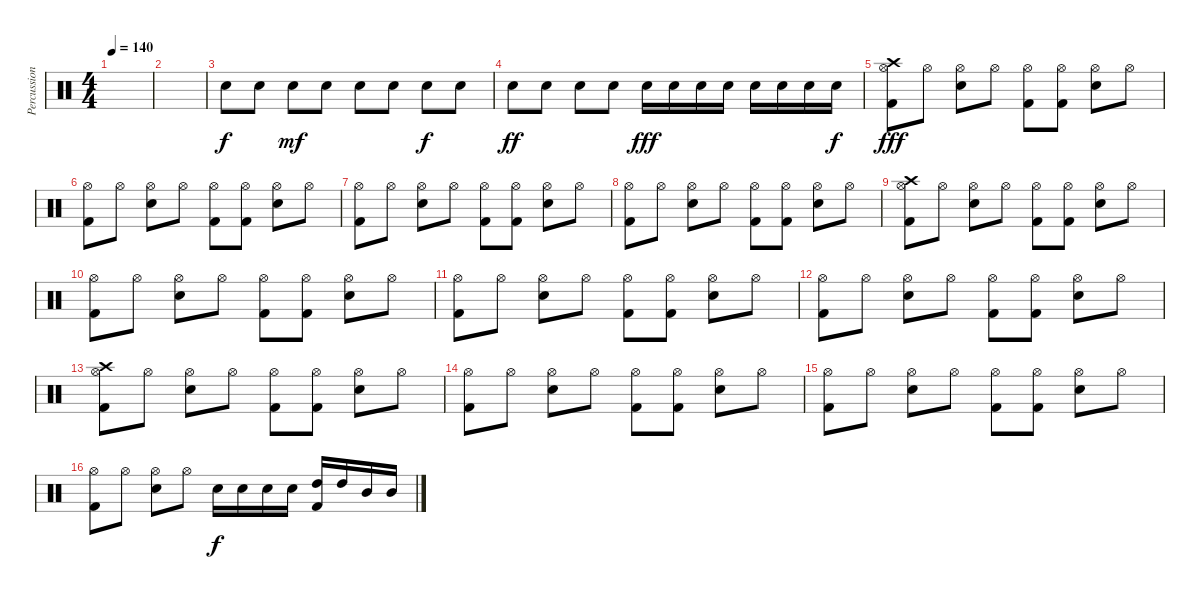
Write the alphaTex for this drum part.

\track ("Percussion" "Percussion") {instrument percussion}
\staff {score}
\articulation defaults
\ts (4 4)
\tempo 140
\clef neutral
\ks c
|
|
"Snare (hit) 2".8 "Snare (hit) 2".8 "Snare (hit) 2".8{dy mf} "Snare (hit) 2".8 "Snare (hit) 2".8 "Snare (hit) 2".8 "Snare (hit) 2".8{dy f} "Snare (hit) 2".8 |
"Snare (hit) 2".8{dy ff} "Snare (hit) 2".8 "Snare (hit) 2".8 "Snare (hit) 2".8 "Snare (hit) 2".16{dy fff} "Snare (hit) 2".16 "Snare (hit) 2".16 "Snare (hit) 2".16 "Snare (hit) 2".16 "Snare (hit) 2".16 "Snare (hit) 2".16 "Snare (hit) 2".16{dy f} |
("Crash high (hit)" "Hi-Hat (open)" "Kick (hit) 2").8{dy fff} "Hi-Hat (open)".8 ("Hi-Hat (open)" "Snare (hit) 2").8 "Hi-Hat (open)".8 ("Hi-Hat (open)" "Kick (hit) 2").8 ("Hi-Hat (open)" "Kick (hit) 2").8 ("Hi-Hat (open)" "Snare (hit) 2").8 "Hi-Hat (open)".8 |
("Hi-Hat (open)" "Kick (hit) 2").8 "Hi-Hat (open)".8 ("Hi-Hat (open)" "Snare (hit) 2").8 "Hi-Hat (open)".8 ("Hi-Hat (open)" "Kick (hit) 2").8 ("Hi-Hat (open)" "Kick (hit) 2").8 ("Hi-Hat (open)" "Snare (hit) 2").8 "Hi-Hat (open)".8 |
("Hi-Hat (open)" "Kick (hit) 2").8 "Hi-Hat (open)".8 ("Hi-Hat (open)" "Snare (hit) 2").8 "Hi-Hat (open)".8 ("Hi-Hat (open)" "Kick (hit) 2").8 ("Hi-Hat (open)" "Kick (hit) 2").8 ("Hi-Hat (open)" "Snare (hit) 2").8 "Hi-Hat (open)".8 |
("Hi-Hat (open)" "Kick (hit) 2").8 "Hi-Hat (open)".8 ("Hi-Hat (open)" "Snare (hit) 2").8 "Hi-Hat (open)".8 ("Hi-Hat (open)" "Kick (hit) 2").8 ("Hi-Hat (open)" "Kick (hit) 2").8 ("Hi-Hat (open)" "Snare (hit) 2").8 "Hi-Hat (open)".8 |
("Crash high (hit)" "Hi-Hat (open)" "Kick (hit) 2").8 "Hi-Hat (open)".8 ("Hi-Hat (open)" "Snare (hit) 2").8 "Hi-Hat (open)".8 ("Hi-Hat (open)" "Kick (hit) 2").8 ("Hi-Hat (open)" "Kick (hit) 2").8 ("Hi-Hat (open)" "Snare (hit) 2").8 "Hi-Hat (open)".8 |
("Hi-Hat (open)" "Kick (hit) 2").8 "Hi-Hat (open)".8 ("Hi-Hat (open)" "Snare (hit) 2").8 "Hi-Hat (open)".8 ("Hi-Hat (open)" "Kick (hit) 2").8 ("Hi-Hat (open)" "Kick (hit) 2").8 ("Hi-Hat (open)" "Snare (hit) 2").8 "Hi-Hat (open)".8 |
("Hi-Hat (open)" "Kick (hit) 2").8 "Hi-Hat (open)".8 ("Hi-Hat (open)" "Snare (hit) 2").8 "Hi-Hat (open)".8 ("Hi-Hat (open)" "Kick (hit) 2").8 ("Hi-Hat (open)" "Kick (hit) 2").8 ("Hi-Hat (open)" "Snare (hit) 2").8 "Hi-Hat (open)".8 |
("Hi-Hat (open)" "Kick (hit) 2").8 "Hi-Hat (open)".8 ("Hi-Hat (open)" "Snare (hit) 2").8 "Hi-Hat (open)".8 ("Hi-Hat (open)" "Kick (hit) 2").8 ("Hi-Hat (open)" "Kick (hit) 2").8 ("Hi-Hat (open)" "Snare (hit) 2").8 "Hi-Hat (open)".8 |
("Crash high (hit)" "Hi-Hat (open)" "Kick (hit) 2").8 "Hi-Hat (open)".8 ("Hi-Hat (open)" "Snare (hit) 2").8 "Hi-Hat (open)".8 ("Hi-Hat (open)" "Kick (hit) 2").8 ("Hi-Hat (open)" "Kick (hit) 2").8 ("Hi-Hat (open)" "Snare (hit) 2").8 "Hi-Hat (open)".8 |
("Hi-Hat (open)" "Kick (hit) 2").8 "Hi-Hat (open)".8 ("Hi-Hat (open)" "Snare (hit) 2").8 "Hi-Hat (open)".8 ("Hi-Hat (open)" "Kick (hit) 2").8 ("Hi-Hat (open)" "Kick (hit) 2").8 ("Hi-Hat (open)" "Snare (hit) 2").8 "Hi-Hat (open)".8 |
("Hi-Hat (open)" "Kick (hit) 2").8 "Hi-Hat (open)".8 ("Hi-Hat (open)" "Snare (hit) 2").8 "Hi-Hat (open)".8 ("Hi-Hat (open)" "Kick (hit) 2").8 ("Hi-Hat (open)" "Kick (hit) 2").8 ("Hi-Hat (open)" "Snare (hit) 2").8 "Hi-Hat (open)".8 |
("Hi-Hat (open)" "Kick (hit) 2").8 "Hi-Hat (open)".8 ("Hi-Hat (open)" "Snare (hit) 2").8 "Hi-Hat (open)".8 "Snare (hit) 2".16{dy f} "Snare (hit) 2".16 "Snare (hit) 2".16 "Snare (hit) 2".16 ("High Tom (hit)" "Kick (hit) 2").16 "High Tom (hit)".16 "Mid Tom (hit)".16 "Mid Tom (hit)".16
